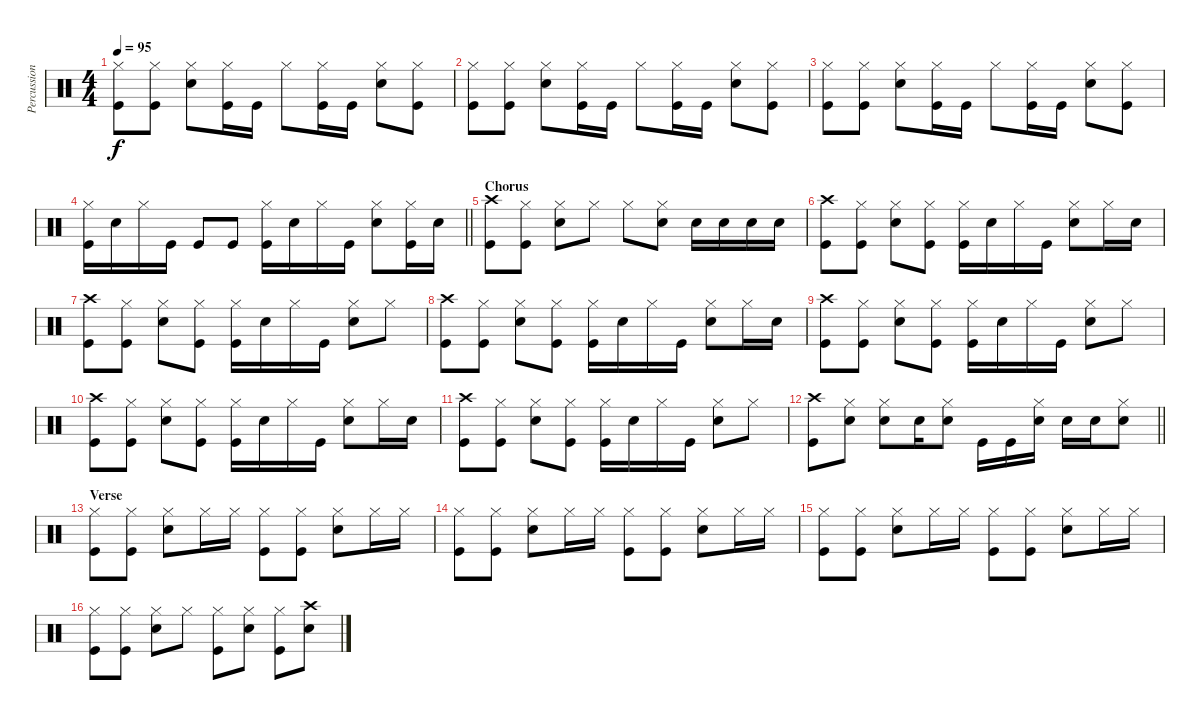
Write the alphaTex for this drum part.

\track ("Percussion" "Percussion") {instrument percussion}
\staff {score}
\articulation defaults
\ts (4 4)
\tempo 95
\clef neutral
\ks c
("Hi-Hat (closed)" "Kick (hit)").8{dy f} ("Hi-Hat (closed)" "Kick (hit)").8 ("Hi-Hat (closed)" "Snare (hit) 2").8 ("Hi-Hat (closed)" "Kick (hit)").16 "Kick (hit)".16 "Hi-Hat (closed)".8 ("Hi-Hat (closed)" "Kick (hit)").16 "Kick (hit)".16 ("Hi-Hat (closed)" "Snare (hit) 2").8 ("Hi-Hat (closed)" "Kick (hit)").8 |
("Hi-Hat (closed)" "Kick (hit)").8 ("Hi-Hat (closed)" "Kick (hit)").8 ("Hi-Hat (closed)" "Snare (hit) 2").8 ("Hi-Hat (closed)" "Kick (hit)").16 "Kick (hit)".16 "Hi-Hat (closed)".8 ("Hi-Hat (closed)" "Kick (hit)").16 "Kick (hit)".16 ("Hi-Hat (closed)" "Snare (hit) 2").8 ("Hi-Hat (closed)" "Kick (hit)").8 |
("Hi-Hat (closed)" "Kick (hit)").8 ("Hi-Hat (closed)" "Kick (hit)").8 ("Hi-Hat (closed)" "Snare (hit) 2").8 ("Hi-Hat (closed)" "Kick (hit)").16 "Kick (hit)".16 "Hi-Hat (closed)".8 ("Hi-Hat (closed)" "Kick (hit)").16 "Kick (hit)".16 ("Hi-Hat (closed)" "Snare (hit) 2").8 ("Hi-Hat (closed)" "Kick (hit)").8 |
\barLineRight lightlight
("Hi-Hat (closed)" "Kick (hit)").16 "Snare (hit) 2".16 "Hi-Hat (closed)".16 "Kick (hit)".16 "Kick (hit)".8 "Kick (hit)".8 ("Hi-Hat (closed)" "Kick (hit)").16 "Snare (hit) 2".16 "Hi-Hat (closed)".16 "Kick (hit)".16 ("Hi-Hat (closed)" "Snare (hit) 2").8 ("Hi-Hat (closed)" "Kick (hit)").16 "Snare (hit) 2".16 |
\section ("" "Chorus")
("Crash high (hit)" "Kick (hit)").8 ("Hi-Hat (closed)" "Kick (hit)").8 ("Hi-Hat (closed)" "Snare (hit) 2").8 "Hi-Hat (closed)".8 "Hi-Hat (closed)".8 ("Hi-Hat (closed)" "Snare (hit) 2").8 "Snare (hit) 2".16 "Snare (hit) 2".16 "Snare (hit) 2".16 "Snare (hit) 2".16 |
("Crash high (hit)" "Kick (hit)").8 ("Hi-Hat (closed)" "Kick (hit)").8 ("Hi-Hat (closed)" "Snare (hit) 2").8 ("Hi-Hat (closed)" "Kick (hit)").8 ("Hi-Hat (closed)" "Kick (hit)").16 "Snare (hit) 2".16 "Hi-Hat (closed)".16 "Kick (hit)".16 ("Hi-Hat (closed)" "Snare (hit) 2").8 "Hi-Hat (closed)".16 "Snare (hit) 2".16 |
("Crash high (hit)" "Kick (hit)").8 ("Hi-Hat (closed)" "Kick (hit)").8 ("Hi-Hat (closed)" "Snare (hit) 2").8 ("Hi-Hat (closed)" "Kick (hit)").8 ("Hi-Hat (closed)" "Kick (hit)").16 "Snare (hit) 2".16 "Hi-Hat (closed)".16 "Kick (hit)".16 ("Hi-Hat (closed)" "Snare (hit) 2").8 "Hi-Hat (closed)".8 |
("Crash high (hit)" "Kick (hit)").8 ("Hi-Hat (closed)" "Kick (hit)").8 ("Hi-Hat (closed)" "Snare (hit) 2").8 ("Hi-Hat (closed)" "Kick (hit)").8 ("Hi-Hat (closed)" "Kick (hit)").16 "Snare (hit) 2".16 "Hi-Hat (closed)".16 "Kick (hit)".16 ("Hi-Hat (closed)" "Snare (hit) 2").8 "Hi-Hat (closed)".16 "Snare (hit) 2".16 |
("Crash high (hit)" "Kick (hit)").8 ("Hi-Hat (closed)" "Kick (hit)").8 ("Hi-Hat (closed)" "Snare (hit) 2").8 ("Hi-Hat (closed)" "Kick (hit)").8 ("Hi-Hat (closed)" "Kick (hit)").16 "Snare (hit) 2".16 "Hi-Hat (closed)".16 "Kick (hit)".16 ("Hi-Hat (closed)" "Snare (hit) 2").8 "Hi-Hat (closed)".8 |
("Crash high (hit)" "Kick (hit)").8 ("Hi-Hat (closed)" "Kick (hit)").8 ("Hi-Hat (closed)" "Snare (hit) 2").8 ("Hi-Hat (closed)" "Kick (hit)").8 ("Hi-Hat (closed)" "Kick (hit)").16 "Snare (hit) 2".16 "Hi-Hat (closed)".16 "Kick (hit)".16 ("Hi-Hat (closed)" "Snare (hit) 2").8 "Hi-Hat (closed)".16 "Snare (hit) 2".16 |
("Crash high (hit)" "Kick (hit)").8 ("Hi-Hat (closed)" "Kick (hit)").8 ("Hi-Hat (closed)" "Snare (hit) 2").8 ("Hi-Hat (closed)" "Kick (hit)").8 ("Hi-Hat (closed)" "Kick (hit)").16 "Snare (hit) 2".16 "Hi-Hat (closed)".16 "Kick (hit)".16 ("Hi-Hat (closed)" "Snare (hit) 2").8 "Hi-Hat (closed)".8 |
\barLineRight lightlight
("Crash high (hit)" "Kick (hit)").8 ("Hi-Hat (closed)" "Snare (hit) 2").8 ("Hi-Hat (closed)" "Snare (hit) 2").8 "Snare (hit) 2".16 ("Hi-Hat (closed)" "Snare (hit) 2").8 "Kick (hit)".16 "Kick (hit)".16 ("Hi-Hat (closed)" "Electric Snare (hit)").16 "Electric Snare (hit)".16 "Snare (hit) 2".16 ("Hi-Hat (closed)" "Electric Snare (hit)").8 |
\section ("" "Verse")
("Hi-Hat (closed)" "Kick (hit)").8 ("Hi-Hat (closed)" "Kick (hit)").8 ("Hi-Hat (closed)" "Snare (hit) 2").8 "Hi-Hat (closed)".16 "Hi-Hat (closed)".16 ("Hi-Hat (closed)" "Kick (hit)").8 ("Hi-Hat (closed)" "Kick (hit)").8 ("Hi-Hat (closed)" "Snare (hit) 2").8 "Hi-Hat (closed)".16 "Hi-Hat (closed)".16 |
("Hi-Hat (closed)" "Kick (hit)").8 ("Hi-Hat (closed)" "Kick (hit)").8 ("Hi-Hat (closed)" "Snare (hit) 2").8 "Hi-Hat (closed)".16 "Hi-Hat (closed)".16 ("Hi-Hat (closed)" "Kick (hit)").8 ("Hi-Hat (closed)" "Kick (hit)").8 ("Hi-Hat (closed)" "Snare (hit) 2").8 "Hi-Hat (closed)".16 "Hi-Hat (closed)".16 |
("Hi-Hat (closed)" "Kick (hit)").8 ("Hi-Hat (closed)" "Kick (hit)").8 ("Hi-Hat (closed)" "Snare (hit) 2").8 "Hi-Hat (closed)".16 "Hi-Hat (closed)".16 ("Hi-Hat (closed)" "Kick (hit)").8 ("Hi-Hat (closed)" "Kick (hit)").8 ("Hi-Hat (closed)" "Snare (hit) 2").8 "Hi-Hat (closed)".16 "Hi-Hat (closed)".16 |
("Hi-Hat (closed)" "Kick (hit)").8 ("Hi-Hat (closed)" "Kick (hit)").8 ("Hi-Hat (closed)" "Snare (hit) 2").8 "Hi-Hat (closed)".8 ("Hi-Hat (closed)" "Kick (hit)").8 ("Hi-Hat (closed)" "Snare (hit) 2").8 ("Hi-Hat (closed)" "Kick (hit)").8 ("Crash high (hit)" "Snare (hit) 2").8
